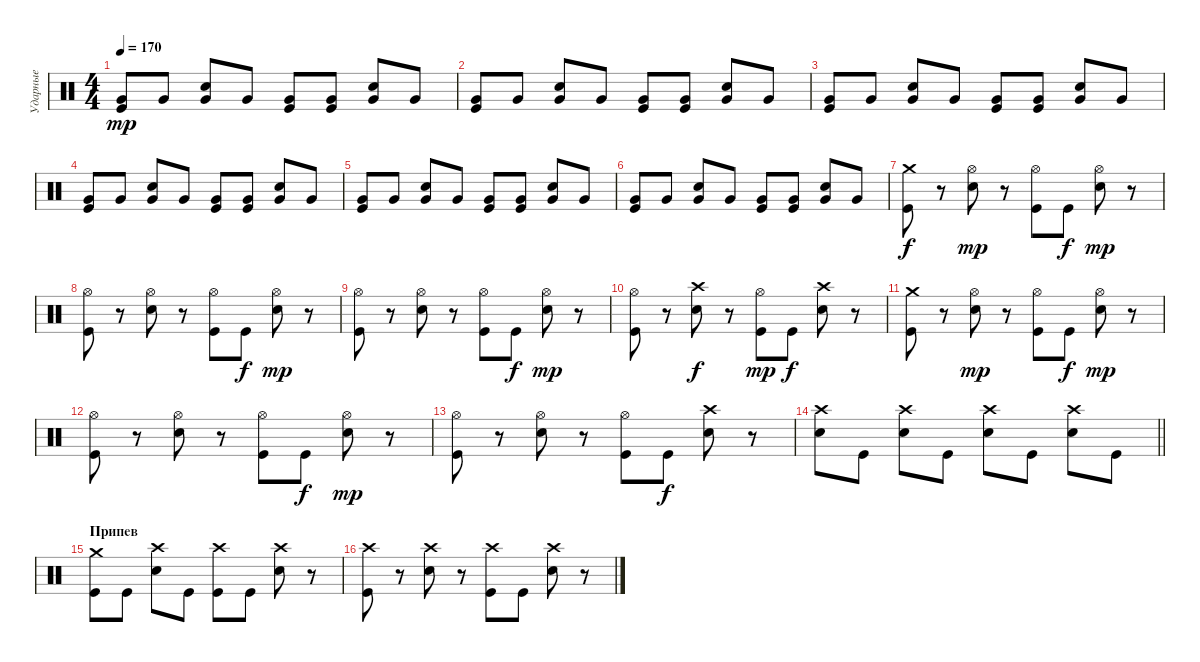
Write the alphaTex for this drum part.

\track ("Ударные" "Ударные") {instrument percussion}
\staff {score}
\articulation defaults
\ts (4 4)
\tempo 170
\clef neutral
\ks c
("Very Low Tom (hit)" "Kick (hit)").8{dy mp} "Very Low Tom (hit)".8 ("Very Low Tom (hit)" "Electric Snare (hit)").8 "Very Low Tom (hit)".8 ("Very Low Tom (hit)" "Kick (hit)").8 ("Very Low Tom (hit)" "Kick (hit)").8 ("Very Low Tom (hit)" "Electric Snare (hit)").8 "Very Low Tom (hit)".8 |
("Very Low Tom (hit)" "Kick (hit)").8 "Very Low Tom (hit)".8 ("Very Low Tom (hit)" "Electric Snare (hit)").8 "Very Low Tom (hit)".8 ("Very Low Tom (hit)" "Kick (hit)").8 ("Very Low Tom (hit)" "Kick (hit)").8 ("Very Low Tom (hit)" "Electric Snare (hit)").8 "Very Low Tom (hit)".8 |
("Very Low Tom (hit)" "Kick (hit)").8 "Very Low Tom (hit)".8 ("Very Low Tom (hit)" "Electric Snare (hit)").8 "Very Low Tom (hit)".8 ("Very Low Tom (hit)" "Kick (hit)").8 ("Very Low Tom (hit)" "Kick (hit)").8 ("Very Low Tom (hit)" "Electric Snare (hit)").8 "Very Low Tom (hit)".8 |
("Very Low Tom (hit)" "Kick (hit)").8 "Very Low Tom (hit)".8 ("Very Low Tom (hit)" "Electric Snare (hit)").8 "Very Low Tom (hit)".8 ("Very Low Tom (hit)" "Kick (hit)").8 ("Very Low Tom (hit)" "Kick (hit)").8 ("Very Low Tom (hit)" "Electric Snare (hit)").8 "Very Low Tom (hit)".8 |
("Very Low Tom (hit)" "Kick (hit)").8 "Very Low Tom (hit)".8 ("Very Low Tom (hit)" "Electric Snare (hit)").8 "Very Low Tom (hit)".8 ("Very Low Tom (hit)" "Kick (hit)").8 ("Very Low Tom (hit)" "Kick (hit)").8 ("Very Low Tom (hit)" "Electric Snare (hit)").8 "Very Low Tom (hit)".8 |
("Very Low Tom (hit)" "Kick (hit)").8 "Very Low Tom (hit)".8 ("Very Low Tom (hit)" "Electric Snare (hit)").8 "Very Low Tom (hit)".8 ("Very Low Tom (hit)" "Kick (hit)").8 ("Very Low Tom (hit)" "Kick (hit)").8 ("Very Low Tom (hit)" "Electric Snare (hit)").8 "Very Low Tom (hit)".8 |
("Crash medium (hit)" "Kick (hit)").8{dy f} r.8 ("Hi-Hat (open)" "Electric Snare (hit)").8{dy mp} r.8 ("Hi-Hat (open)" "Kick (hit)").8 "Kick (hit)".8{dy f} ("Hi-Hat (open)" "Electric Snare (hit)").8{dy mp} r.8 |
("Hi-Hat (open)" "Kick (hit)").8 r.8 ("Hi-Hat (open)" "Electric Snare (hit)").8 r.8 ("Hi-Hat (open)" "Kick (hit)").8 "Kick (hit)".8{dy f} ("Hi-Hat (open)" "Electric Snare (hit)").8{dy mp} r.8 |
("Hi-Hat (open)" "Kick (hit)").8 r.8 ("Hi-Hat (open)" "Electric Snare (hit)").8 r.8 ("Hi-Hat (open)" "Kick (hit)").8 "Kick (hit)".8{dy f} ("Hi-Hat (open)" "Electric Snare (hit)").8{dy mp} r.8 |
("Hi-Hat (open)" "Kick (hit)").8 r.8 ("Crash high (hit)" "Electric Snare (hit)").8{dy f} r.8 ("Hi-Hat (open)" "Kick (hit)").8{dy mp} "Kick (hit)".8{dy f} ("Crash high (hit)" "Electric Snare (hit)").8 r.8 |
("Crash medium (hit)" "Kick (hit)").8 r.8 ("Hi-Hat (open)" "Electric Snare (hit)").8{dy mp} r.8 ("Hi-Hat (open)" "Kick (hit)").8 "Kick (hit)".8{dy f} ("Hi-Hat (open)" "Electric Snare (hit)").8{dy mp} r.8 |
("Hi-Hat (open)" "Kick (hit)").8 r.8 ("Hi-Hat (open)" "Electric Snare (hit)").8 r.8 ("Hi-Hat (open)" "Kick (hit)").8 "Kick (hit)".8{dy f} ("Hi-Hat (open)" "Electric Snare (hit)").8{dy mp} r.8 |
("Hi-Hat (open)" "Kick (hit)").8 r.8 ("Hi-Hat (open)" "Electric Snare (hit)").8 r.8 ("Hi-Hat (open)" "Kick (hit)").8 "Kick (hit)".8{dy f} ("Crash high (hit)" "Electric Snare (hit)").8 r.8 |
\barLineRight lightlight
("Electric Snare (hit)" "Crash high (hit)").8 "Kick (hit)".8 ("Electric Snare (hit)" "Crash high (hit)").8 "Kick (hit)".8 ("Electric Snare (hit)" "Crash high (hit)").8 "Kick (hit)".8 ("Electric Snare (hit)" "Crash high (hit)").8 "Kick (hit)".8 |
\section ("" "Припев")
("Crash medium (hit)" "Kick (hit)").8 "Kick (hit)".8 ("Crash high (hit)" "Electric Snare (hit)").8 "Kick (hit)".8 ("Crash high (hit)" "Kick (hit)").8 "Kick (hit)".8 ("Crash high (hit)" "Electric Snare (hit)").8 r.8 |
("Crash high (hit)" "Kick (hit)").8 r.8 ("Crash high (hit)" "Electric Snare (hit)").8 r.8 ("Crash high (hit)" "Kick (hit)").8 "Kick (hit)".8 ("Crash high (hit)" "Electric Snare (hit)").8 r.8
